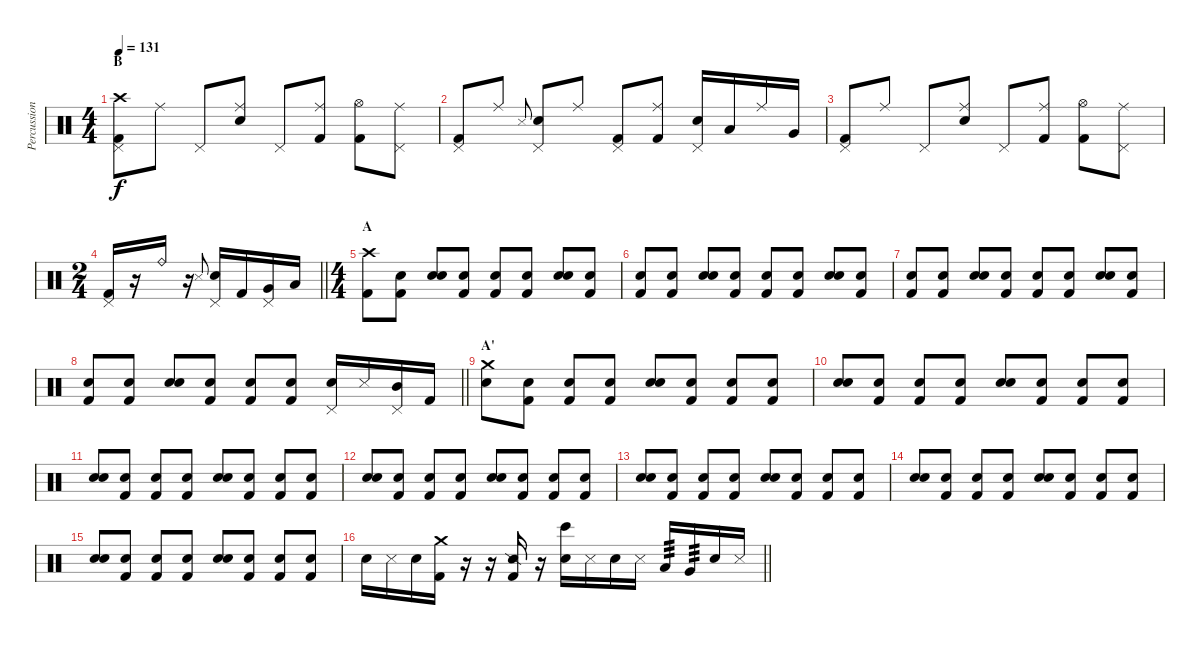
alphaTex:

\track ("Percussion" "Percussion") {instrument percussion}
\staff {score}
\articulation defaults
\ts (4 4)
\section ("" "B")
\tempo 131
\clef neutral
\ks c
("Crash high (hit)" "Pedal Hi-Hat (hit)" "Kick (hit) 2").8{dy f} "Ride (middle)".8 "Pedal Hi-Hat (hit)".8 ("Ride (middle)" "Snare (hit) 2").8 "Pedal Hi-Hat (hit)".8 ("Ride (middle)" "Kick (hit) 2").8 ("Hi-Hat (open)" "Kick (hit) 2").8 ("Ride (middle)" "Pedal Hi-Hat (hit)").8 |
("Pedal Hi-Hat (hit)" "Kick (hit) 2").8 "Ride (middle)".8 "Metronome (hit)".8{gr onbeat} ("Pedal Hi-Hat (hit)" "Snare (hit) 2").8 "Ride (middle)".8 ("Pedal Hi-Hat (hit)" "Kick (hit) 2").8 ("Ride (middle)" "Kick (hit) 2").8 ("Pedal Hi-Hat (hit)" "Snare (hit) 2").16 "Low Tom (hit)".16 "Ride (middle)".16 "Very Low Tom (hit)".16 |
("Pedal Hi-Hat (hit)" "Kick (hit) 2").8 "Ride (middle)".8 "Pedal Hi-Hat (hit)".8 ("Ride (middle)" "Snare (hit) 2").8 "Pedal Hi-Hat (hit)".8 ("Ride (middle)" "Kick (hit) 2").8 ("Hi-Hat (open)" "Kick (hit) 2").8 ("Ride (middle)" "Pedal Hi-Hat (hit)").8 |
\ts (2 4)
\barLineRight lightlight
("Pedal Hi-Hat (hit)" "Kick (hit) 2").16 r.16 "Ride (bell)".16 r.16 "Metronome (hit)".8{gr onbeat} ("Pedal Hi-Hat (hit)" "Snare (hit) 2").16 "Kick (hit) 2".16 ("Pedal Hi-Hat (hit)" "Very Low Tom (hit)").16 "Low Floor Tom (hit)".16 |
\ts (4 4)
\section ("" "A")
("Crash high (hit)" "Kick (hit) 2").8 ("Snare (hit)" "Kick (hit) 2").8 ("Snare (hit)" "Snare (hit) 2").8 ("Snare (hit)" "Kick (hit) 2").8 ("Snare (hit)" "Kick (hit) 2").8 ("Snare (hit)" "Kick (hit) 2").8 ("Snare (hit)" "Snare (hit) 2").8 ("Snare (hit)" "Kick (hit) 2").8 |
("Snare (hit)" "Kick (hit) 2").8 ("Snare (hit)" "Kick (hit) 2").8 ("Snare (hit)" "Snare (hit) 2").8 ("Snare (hit)" "Kick (hit) 2").8 ("Snare (hit)" "Kick (hit) 2").8 ("Snare (hit)" "Kick (hit) 2").8 ("Snare (hit)" "Snare (hit) 2").8 ("Snare (hit)" "Kick (hit) 2").8 |
("Snare (hit)" "Kick (hit) 2").8 ("Snare (hit)" "Kick (hit) 2").8 ("Snare (hit)" "Snare (hit) 2").8 ("Snare (hit)" "Kick (hit) 2").8 ("Snare (hit)" "Kick (hit) 2").8 ("Snare (hit)" "Kick (hit) 2").8 ("Snare (hit)" "Snare (hit) 2").8 ("Snare (hit)" "Kick (hit) 2").8 |
\barLineRight lightlight
("Snare (hit)" "Kick (hit) 2").8 ("Snare (hit)" "Kick (hit) 2").8 ("Snare (hit)" "Snare (hit) 2").8 ("Snare (hit)" "Kick (hit) 2").8 ("Snare (hit)" "Kick (hit) 2").8 ("Snare (hit)" "Kick (hit) 2").8 ("Pedal Hi-Hat (hit)" "Snare (hit) 2").16 "Metronome (hit)".16 ("Pedal Hi-Hat (hit)" "Mid Tom (hit)").16 "Kick (hit) 2".16 |
\section ("" "A'")
("Crash medium (hit)" "Snare (hit) 2").8 ("Snare (hit)" "Kick (hit) 2").8 ("Snare (hit)" "Kick (hit) 2").8 ("Snare (hit)" "Kick (hit) 2").8 ("Snare (hit)" "Snare (hit) 2").8 ("Snare (hit)" "Kick (hit) 2").8 ("Snare (hit)" "Kick (hit) 2").8 ("Snare (hit)" "Kick (hit) 2").8 |
("Snare (hit)" "Snare (hit) 2").8 ("Snare (hit)" "Kick (hit) 2").8 ("Snare (hit)" "Kick (hit) 2").8 ("Snare (hit)" "Kick (hit) 2").8 ("Snare (hit)" "Snare (hit) 2").8 ("Snare (hit)" "Kick (hit) 2").8 ("Snare (hit)" "Kick (hit) 2").8 ("Snare (hit)" "Kick (hit) 2").8 |
("Snare (hit)" "Snare (hit) 2").8 ("Snare (hit)" "Kick (hit) 2").8 ("Snare (hit)" "Kick (hit) 2").8 ("Snare (hit)" "Kick (hit) 2").8 ("Snare (hit)" "Snare (hit) 2").8 ("Snare (hit)" "Kick (hit) 2").8 ("Snare (hit)" "Kick (hit) 2").8 ("Snare (hit)" "Kick (hit) 2").8 |
("Snare (hit)" "Snare (hit) 2").8 ("Snare (hit)" "Kick (hit) 2").8 ("Snare (hit)" "Kick (hit) 2").8 ("Snare (hit)" "Kick (hit) 2").8 ("Snare (hit)" "Snare (hit) 2").8 ("Snare (hit)" "Kick (hit) 2").8 ("Snare (hit)" "Kick (hit) 2").8 ("Snare (hit)" "Kick (hit) 2").8 |
("Snare (hit)" "Snare (hit) 2").8 ("Snare (hit)" "Kick (hit) 2").8 ("Snare (hit)" "Kick (hit) 2").8 ("Snare (hit)" "Kick (hit) 2").8 ("Snare (hit)" "Snare (hit) 2").8 ("Snare (hit)" "Kick (hit) 2").8 ("Snare (hit)" "Kick (hit) 2").8 ("Snare (hit)" "Kick (hit) 2").8 |
("Snare (hit)" "Snare (hit) 2").8 ("Snare (hit)" "Kick (hit) 2").8 ("Snare (hit)" "Kick (hit) 2").8 ("Snare (hit)" "Kick (hit) 2").8 ("Snare (hit)" "Snare (hit) 2").8 ("Snare (hit)" "Kick (hit) 2").8 ("Snare (hit)" "Kick (hit) 2").8 ("Snare (hit)" "Kick (hit) 2").8 |
("Snare (hit)" "Snare (hit) 2").8 ("Snare (hit)" "Kick (hit) 2").8 ("Snare (hit)" "Kick (hit) 2").8 ("Snare (hit)" "Kick (hit) 2").8 ("Snare (hit)" "Snare (hit) 2").8 ("Snare (hit)" "Kick (hit) 2").8 ("Snare (hit)" "Kick (hit) 2").8 ("Snare (hit)" "Kick (hit) 2").8 |
\barLineRight lightlight "Snare (hit) 2".16 "Metronome (hit)".16 "Snare (hit) 2".16
("Crash medium (hit)" "Kick (hit) 2").16 r.16 r.16 ("Snare (side stick) 2" "Kick (hit) 2").16 r.16 ("Bongo High (hit)" "Snare (hit) 2").16 "Metronome (hit)".16 "Snare (hit) 2".16 "Metronome (hit)".16 "Low Tom (hit)".16{tp 3} "Very Low Tom (hit)".16{tp 3} "Snare (hit) 2".16 "Metronome (hit)".16
